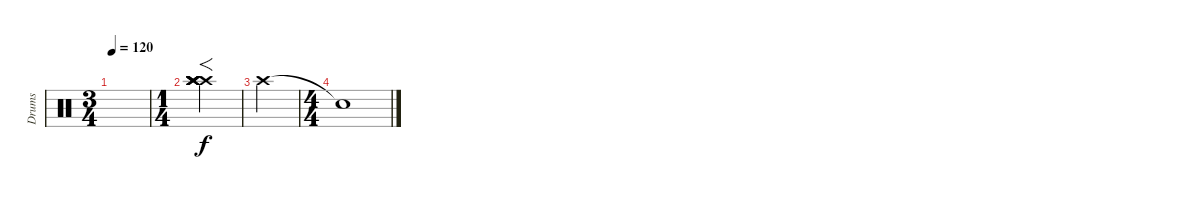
\track ("Drums" "Drums") {instrument percussion}
\staff {score}
\articulation defaults
\ts (3 4)
\tempo 120
\clef neutral
\ks c
|
\ts (1 4)
("Crash high (hit)" "Crash high (hit)" "Crash high (hit)" "Crash high (hit)" "Crash high (hit)" "Crash high (hit)").4{f} |
"Crash high (hit)".4 |
\ts (4 4)
"Snare (hit)"{t}.1
